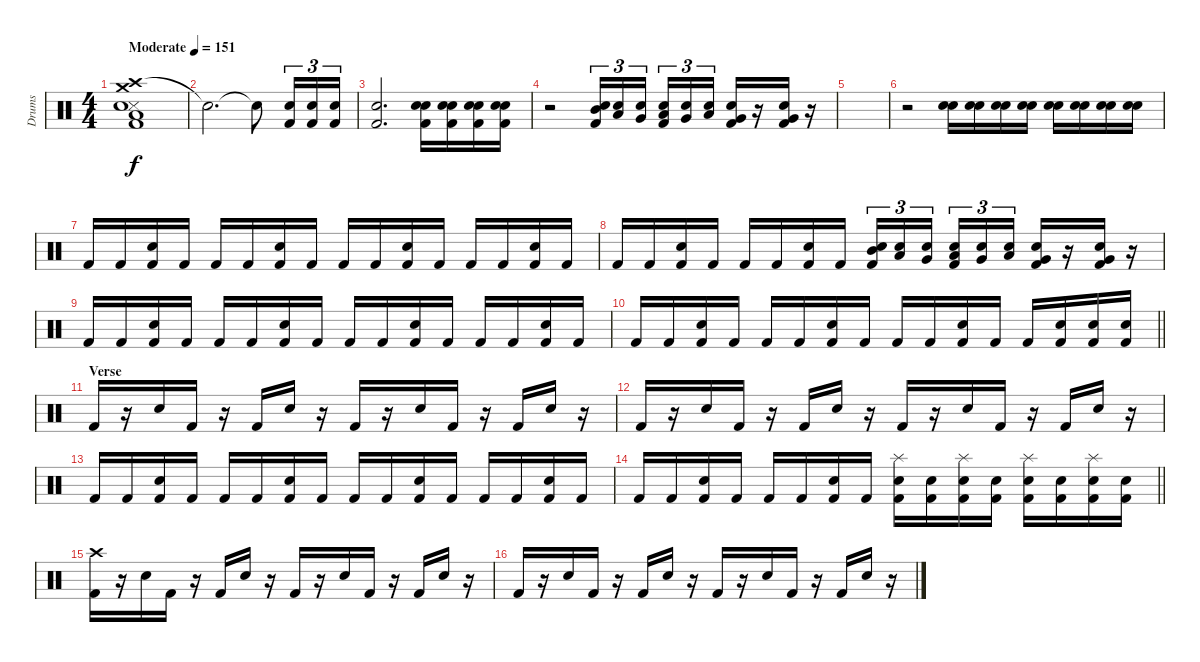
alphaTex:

\track ("Drums" "Drums") {instrument percussion}
\staff {score}
\articulation defaults
\ts (4 4)
\tempo (151 "Moderate")
\clef neutral
\ks c
("Crash high (hit)" "Crash medium (hit)" "Low Floor Tom (hit)" "Snare (side stick) 3" "Snare (hit) 2" "Kick (hit) 2").1{dy f} |
"Snare (hit)"{t}.2{d} "Snare (hit)"{t}.8 ("Electric Snare (hit)" "Kick (hit) 2").16{tu (3 2)} ("Electric Snare (hit)" "Kick (hit) 2").16{tu (3 2)} ("Electric Snare (hit)" "Kick (hit) 2").16{tu (3 2)} |
("Electric Snare (hit)" "Kick (hit) 2").2{d} ("Snare (hit) 2" "Electric Snare (hit)" "Kick (hit) 2").16 ("Snare (hit) 2" "Electric Snare (hit)" "Kick (hit) 2").16 ("Snare (hit) 2" "Electric Snare (hit)" "Kick (hit) 2").16 ("Snare (hit) 2" "Electric Snare (hit)" "Kick (hit) 2").16 |
r.2 ("Mid Tom (hit)" "Snare (hit) 2" "Kick (hit) 2").16{tu (3 2)} ("Low Tom (hit)" "Snare (hit) 2").16{tu (3 2)} ("Very Low Tom (hit)" "Snare (hit) 2").16{tu (3 2) beam splitsecondary} ("Low Floor Tom (hit)" "Snare (hit) 2" "Kick (hit) 2").16{tu (3 2)} ("Very Low Tom (hit)" "Snare (hit) 2").16{tu (3 2)} ("Low Tom (hit)" "Snare (hit) 2").16{tu (3 2)} ("Very Low Tom (hit)" "Snare (hit) 2" "Kick (hit) 2").16 r.16 ("Very Low Tom (hit)" "Snare (hit) 2" "Kick (hit) 2").16 r.16 |
|
r.2 ("Electric Snare (hit)" "Snare (hit) 2").16 ("Electric Snare (hit)" "Snare (hit) 2").16 ("Electric Snare (hit)" "Snare (hit) 2").16 ("Electric Snare (hit)" "Snare (hit) 2").16 ("Electric Snare (hit)" "Snare (hit) 2").16 ("Electric Snare (hit)" "Snare (hit) 2").16 ("Electric Snare (hit)" "Snare (hit) 2").16 ("Electric Snare (hit)" "Snare (hit) 2").16 |
"Kick (hit) 2".16 "Kick (hit) 2".16 ("Snare (hit) 2" "Kick (hit) 2").16 "Kick (hit) 2".16 "Kick (hit) 2".16 "Kick (hit) 2".16 ("Snare (hit) 2" "Kick (hit) 2").16 "Kick (hit) 2".16 "Kick (hit) 2".16 "Kick (hit) 2".16 ("Snare (hit) 2" "Kick (hit) 2").16 "Kick (hit) 2".16 "Kick (hit) 2".16 "Kick (hit) 2".16 ("Snare (hit) 2" "Kick (hit) 2").16 "Kick (hit) 2".16 |
"Kick (hit) 2".16 "Kick (hit) 2".16 ("Snare (hit) 2" "Kick (hit) 2").16 "Kick (hit) 2".16 "Kick (hit) 2".16 "Kick (hit) 2".16 ("Snare (hit) 2" "Kick (hit) 2").16 "Kick (hit) 2".16 ("Mid Tom (hit)" "Snare (hit) 2" "Kick (hit) 2").16{tu (3 2)} ("Low Tom (hit)" "Snare (hit) 2").16{tu (3 2)} ("Very Low Tom (hit)" "Snare (hit) 2").16{tu (3 2) beam splitsecondary} ("Low Floor Tom (hit)" "Snare (hit) 2" "Kick (hit) 2").16{tu (3 2)} ("Very Low Tom (hit)" "Snare (hit) 2").16{tu (3 2)} ("Low Tom (hit)" "Snare (hit) 2").16{tu (3 2)} ("Very Low Tom (hit)" "Snare (hit) 2" "Kick (hit) 2").16 r.16 ("Very Low Tom (hit)" "Snare (hit) 2" "Kick (hit) 2").16 r.16 |
"Kick (hit) 2".16 "Kick (hit) 2".16 ("Snare (hit) 2" "Kick (hit) 2").16 "Kick (hit) 2".16 "Kick (hit) 2".16 "Kick (hit) 2".16 ("Snare (hit) 2" "Kick (hit) 2").16 "Kick (hit) 2".16 "Kick (hit) 2".16 "Kick (hit) 2".16 ("Snare (hit) 2" "Kick (hit) 2").16 "Kick (hit) 2".16 "Kick (hit) 2".16 "Kick (hit) 2".16 ("Snare (hit) 2" "Kick (hit) 2").16 "Kick (hit) 2".16 |
\barLineRight lightlight "Kick (hit) 2".16 "Kick (hit) 2".16
("Snare (hit) 2" "Kick (hit) 2").16 "Kick (hit) 2".16 "Kick (hit) 2".16 "Kick (hit) 2".16 ("Snare (hit) 2" "Kick (hit) 2").16 "Kick (hit) 2".16 "Kick (hit) 2".16 "Kick (hit) 2".16 ("Snare (hit) 2" "Kick (hit) 2").16 "Kick (hit) 2".16 "Kick (hit) 2".16 ("Snare (hit) 2" "Kick (hit) 2").16 ("Snare (hit) 2" "Kick (hit) 2").16 ("Snare (hit) 2" "Kick (hit) 2").16 |
\section ("" "Verse")
"Kick (hit) 2".16 r.16 "Snare (hit) 2".16 "Kick (hit) 2".16 r.16 "Kick (hit) 2".16 "Snare (hit) 2".16 r.16 "Kick (hit) 2".16 r.16 "Snare (hit) 2".16 "Kick (hit) 2".16 r.16 "Kick (hit) 2".16 "Snare (hit) 2".16 r.16 |
"Kick (hit) 2".16 r.16 "Snare (hit) 2".16 "Kick (hit) 2".16 r.16 "Kick (hit) 2".16 "Snare (hit) 2".16 r.16 "Kick (hit) 2".16 r.16 "Snare (hit) 2".16 "Kick (hit) 2".16 r.16 "Kick (hit) 2".16 "Snare (hit) 2".16 r.16 |
"Kick (hit) 2".16 "Kick (hit) 2".16 ("Snare (hit) 2" "Kick (hit) 2").16 "Kick (hit) 2".16 "Kick (hit) 2".16 "Kick (hit) 2".16 ("Snare (hit) 2" "Kick (hit) 2").16 "Kick (hit) 2".16 "Kick (hit) 2".16 "Kick (hit) 2".16 ("Snare (hit) 2" "Kick (hit) 2").16 "Kick (hit) 2".16 "Kick (hit) 2".16 "Kick (hit) 2".16 ("Snare (hit) 2" "Kick (hit) 2").16 "Kick (hit) 2".16 |
\barLineRight lightlight "Kick (hit) 2".16 "Kick (hit) 2".16
("Snare (hit) 2" "Kick (hit) 2").16 "Kick (hit) 2".16 "Kick (hit) 2".16 "Kick (hit) 2".16 ("Snare (hit) 2" "Kick (hit) 2").16 "Kick (hit) 2".16 ("Splash (hit)" "Snare (hit) 2" "Kick (hit) 2").16 ("Snare (hit) 2" "Kick (hit) 2").16 ("Splash (hit)" "Snare (hit) 2" "Kick (hit) 2").16 ("Snare (hit) 2" "Kick (hit) 2").16 ("Splash (hit)" "Snare (hit) 2" "Kick (hit) 2").16 ("Snare (hit) 2" "Kick (hit) 2").16 ("Splash (hit)" "Snare (hit) 2" "Kick (hit) 2").16 ("Snare (hit) 2" "Kick (hit) 2").16 |
("Crash high (hit)" "Kick (hit) 2").16 r.16 "Snare (hit) 2".16 "Kick (hit) 2".16 r.16 "Kick (hit) 2".16 "Snare (hit) 2".16 r.16 "Kick (hit) 2".16 r.16 "Snare (hit) 2".16 "Kick (hit) 2".16 r.16 "Kick (hit) 2".16 "Snare (hit) 2".16 r.16 |
"Kick (hit) 2".16 r.16 "Snare (hit) 2".16 "Kick (hit) 2".16 r.16 "Kick (hit) 2".16 "Snare (hit) 2".16 r.16 "Kick (hit) 2".16 r.16 "Snare (hit) 2".16 "Kick (hit) 2".16 r.16 "Kick (hit) 2".16 "Snare (hit) 2".16 r.16
